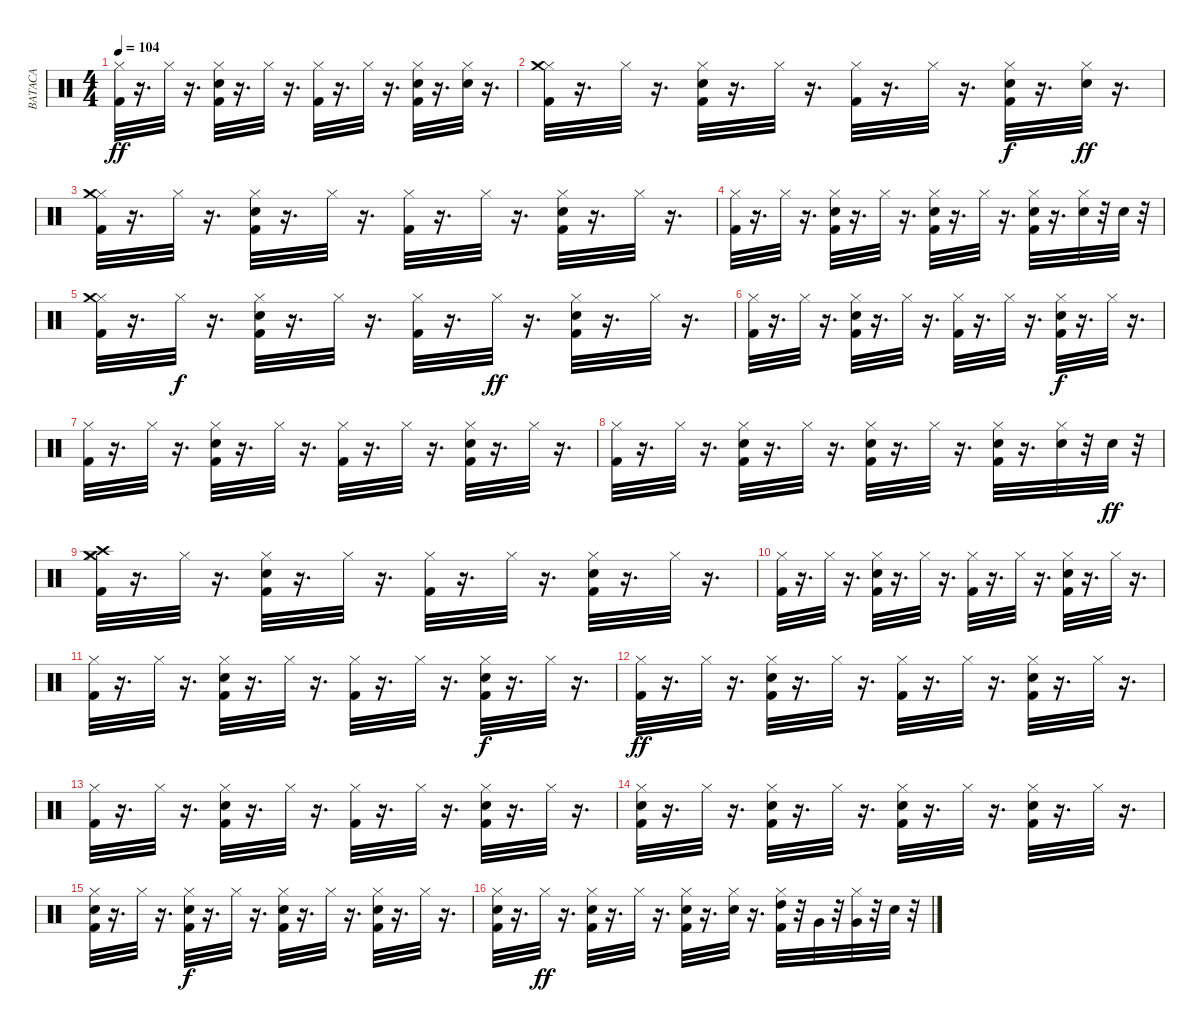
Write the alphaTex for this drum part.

\track ("BATACA" "BATACA") {instrument percussion}
\staff {score}
\articulation defaults
\ts (4 4)
\tempo 104
\clef neutral
\ks c
("Hi-Hat (closed)" "Kick (hit) 2").32{dy ff} r.16{d} "Hi-Hat (closed)".32 r.16{d} ("Hi-Hat (closed)" "Kick (hit) 2" "Electric Snare (hit)").32 r.16{d} "Hi-Hat (closed)".32 r.16{d} ("Hi-Hat (closed)" "Kick (hit) 2").32 r.16{d} "Hi-Hat (closed)".32 r.16{d} ("Hi-Hat (closed)" "Kick (hit) 2" "Electric Snare (hit)").32 r.16{d} ("Hi-Hat (closed)" "Electric Snare (hit)").32 r.16{d} |
("Hi-Hat (closed)" "Kick (hit) 2" "Crash medium (hit)").32 r.16{d} "Hi-Hat (closed)".32 r.16{d} ("Hi-Hat (closed)" "Kick (hit) 2" "Electric Snare (hit)").32 r.16{d} "Hi-Hat (closed)".32 r.16{d} ("Hi-Hat (closed)" "Kick (hit) 2").32 r.16{d} "Hi-Hat (closed)".32 r.16{d} ("Hi-Hat (closed)" "Kick (hit) 2" "Electric Snare (hit)").32{dy f} r.16{d} ("Hi-Hat (closed)" "Electric Snare (hit)").32{dy ff} r.16{d} |
("Hi-Hat (closed)" "Kick (hit) 2" "Crash medium (hit)").32 r.16{d} "Hi-Hat (closed)".32 r.16{d} ("Hi-Hat (closed)" "Kick (hit) 2" "Electric Snare (hit)").32 r.16{d} "Hi-Hat (closed)".32 r.16{d} ("Hi-Hat (closed)" "Kick (hit) 2").32 r.16{d} "Hi-Hat (closed)".32 r.16{d} ("Electric Snare (hit)" "Hi-Hat (closed)" "Kick (hit) 2").32 r.16{d} "Hi-Hat (closed)".32 r.16{d} |
("Hi-Hat (closed)" "Kick (hit) 2").32 r.16{d} "Hi-Hat (closed)".32 r.16{d} ("Hi-Hat (closed)" "Kick (hit) 2" "Electric Snare (hit)").32 r.16{d} "Hi-Hat (closed)".32 r.16{d} ("Hi-Hat (closed)" "Kick (hit) 2" "Electric Snare (hit)").32 r.16{d} "Hi-Hat (closed)".32 r.16{d} ("Hi-Hat (closed)" "Kick (hit) 2" "Electric Snare (hit)").32 r.16{d} ("Hi-Hat (closed)" "Electric Snare (hit)").32 r.32 "Electric Snare (hit)".32 r.32 |
("Hi-Hat (closed)" "Kick (hit) 2" "Crash medium (hit)").32 r.16{d} "Hi-Hat (closed)".32{dy f} r.16{d} ("Hi-Hat (closed)" "Kick (hit) 2" "Electric Snare (hit)").32 r.16{d} "Hi-Hat (closed)".32 r.16{d} ("Hi-Hat (closed)" "Kick (hit) 2").32 r.16{d} "Hi-Hat (closed)".32{dy ff} r.16{d} ("Hi-Hat (closed)" "Kick (hit) 2" "Electric Snare (hit)").32 r.16{d} "Hi-Hat (closed)".32 r.16{d} |
("Hi-Hat (closed)" "Kick (hit) 2").32 r.16{d} "Hi-Hat (closed)".32 r.16{d} ("Hi-Hat (closed)" "Kick (hit) 2" "Electric Snare (hit)").32 r.16{d} "Hi-Hat (closed)".32 r.16{d} ("Hi-Hat (closed)" "Kick (hit) 2").32 r.16{d} "Hi-Hat (closed)".32 r.16{d} ("Hi-Hat (closed)" "Kick (hit) 2" "Electric Snare (hit)").32{dy f} r.16{d} "Hi-Hat (closed)".32 r.16{d} |
("Hi-Hat (closed)" "Kick (hit) 2").32 r.16{d} "Hi-Hat (closed)".32 r.16{d} ("Hi-Hat (closed)" "Kick (hit) 2" "Electric Snare (hit)").32 r.16{d} "Hi-Hat (closed)".32 r.16{d} ("Hi-Hat (closed)" "Kick (hit) 2").32 r.16{d} "Hi-Hat (closed)".32 r.16{d} ("Hi-Hat (closed)" "Kick (hit) 2" "Electric Snare (hit)").32 r.16{d} "Hi-Hat (closed)".32 r.16{d} |
("Hi-Hat (closed)" "Kick (hit) 2").32 r.16{d} "Hi-Hat (closed)".32 r.16{d} ("Hi-Hat (closed)" "Kick (hit) 2" "Electric Snare (hit)").32 r.16{d} "Hi-Hat (closed)".32 r.16{d} ("Hi-Hat (closed)" "Kick (hit) 2" "Electric Snare (hit)").32 r.16{d} "Hi-Hat (closed)".32 r.16{d} ("Hi-Hat (closed)" "Kick (hit) 2" "Electric Snare (hit)").32 r.16{d} ("Hi-Hat (closed)" "Electric Snare (hit)").32 r.32 "Electric Snare (hit)".32{dy ff} r.32 |
("Hi-Hat (closed)" "Kick (hit) 2" "Crash high (hit)" "Crash medium (hit)").32 r.16{d} "Hi-Hat (closed)".32 r.16{d} ("Hi-Hat (closed)" "Kick (hit) 2" "Electric Snare (hit)").32 r.16{d} "Hi-Hat (closed)".32 r.16{d} ("Hi-Hat (closed)" "Kick (hit) 2").32 r.16{d} "Hi-Hat (closed)".32 r.16{d} ("Hi-Hat (closed)" "Kick (hit) 2" "Electric Snare (hit)").32 r.16{d} "Hi-Hat (closed)".32 r.16{d} |
("Hi-Hat (closed)" "Kick (hit) 2").32 r.16{d} "Hi-Hat (closed)".32 r.16{d} ("Hi-Hat (closed)" "Kick (hit) 2" "Electric Snare (hit)").32 r.16{d} "Hi-Hat (closed)".32 r.16{d} ("Hi-Hat (closed)" "Kick (hit) 2").32 r.16{d} "Hi-Hat (closed)".32 r.16{d} ("Hi-Hat (closed)" "Kick (hit) 2" "Electric Snare (hit)").32 r.16{d} "Hi-Hat (closed)".32 r.16{d} |
("Hi-Hat (closed)" "Kick (hit) 2").32 r.16{d} "Hi-Hat (closed)".32 r.16{d} ("Hi-Hat (closed)" "Kick (hit) 2" "Electric Snare (hit)").32 r.16{d} "Hi-Hat (closed)".32 r.16{d} ("Hi-Hat (closed)" "Kick (hit) 2").32 r.16{d} "Hi-Hat (closed)".32 r.16{d} ("Hi-Hat (closed)" "Kick (hit) 2" "Electric Snare (hit)").32{dy f} r.16{d} "Hi-Hat (closed)".32 r.16{d} |
("Hi-Hat (closed)" "Kick (hit) 2").32{dy ff} r.16{d} "Hi-Hat (closed)".32 r.16{d} ("Hi-Hat (closed)" "Kick (hit) 2" "Electric Snare (hit)").32 r.16{d} "Hi-Hat (closed)".32 r.16{d} ("Hi-Hat (closed)" "Kick (hit) 2").32 r.16{d} "Hi-Hat (closed)".32 r.16{d} ("Hi-Hat (closed)" "Kick (hit) 2" "Electric Snare (hit)").32 r.16{d} "Hi-Hat (closed)".32 r.16{d} |
("Hi-Hat (closed)" "Kick (hit) 2").32 r.16{d} "Hi-Hat (closed)".32 r.16{d} ("Hi-Hat (closed)" "Kick (hit) 2" "Electric Snare (hit)").32 r.16{d} "Hi-Hat (closed)".32 r.16{d} ("Hi-Hat (closed)" "Kick (hit) 2").32 r.16{d} "Hi-Hat (closed)".32 r.16{d} ("Hi-Hat (closed)" "Kick (hit) 2" "Electric Snare (hit)").32 r.16{d} "Hi-Hat (closed)".32 r.16{d} |
("Hi-Hat (closed)" "Kick (hit) 2" "Electric Snare (hit)").32 r.16{d} "Hi-Hat (closed)".32 r.16{d} ("Hi-Hat (closed)" "Kick (hit) 2" "Electric Snare (hit)").32 r.16{d} "Hi-Hat (closed)".32 r.16{d} ("Hi-Hat (closed)" "Kick (hit) 2" "Electric Snare (hit)").32 r.16{d} "Hi-Hat (closed)".32 r.16{d} ("Hi-Hat (closed)" "Kick (hit) 2" "Electric Snare (hit)").32 r.16{d} "Hi-Hat (closed)".32 r.16{d} |
("Hi-Hat (closed)" "Kick (hit) 2" "Electric Snare (hit)").32 r.16{d} "Hi-Hat (closed)".32 r.16{d} ("Hi-Hat (closed)" "Kick (hit) 2" "Electric Snare (hit)").32{dy f} r.16{d} "Hi-Hat (closed)".32 r.16{d} ("Hi-Hat (closed)" "Kick (hit) 2" "Electric Snare (hit)").32 r.16{d} "Hi-Hat (closed)".32 r.16{d} ("Hi-Hat (closed)" "Kick (hit) 2" "Electric Snare (hit)").32 r.16{d} "Hi-Hat (closed)".32 r.16{d} |
("Hi-Hat (closed)" "Kick (hit) 2" "Electric Snare (hit)").32 r.16{d} "Hi-Hat (closed)".32{dy ff} r.16{d} ("Hi-Hat (closed)" "Kick (hit) 2" "Electric Snare (hit)").32 r.16{d} "Hi-Hat (closed)".32 r.16{d} ("Hi-Hat (closed)" "Kick (hit) 2" "Electric Snare (hit)").32 r.16{d} ("Hi-Hat (closed)" "Electric Snare (hit)").32 r.16{d} ("High Tom (hit)" "Hi-Hat (closed)" "Kick (hit) 2").32 r.32 "Very Low Tom (hit)".32 r.32 ("Hi-Hat (closed)" "Very Low Tom (hit)").32 r.32 "Electric Snare (hit)".32 r.32
